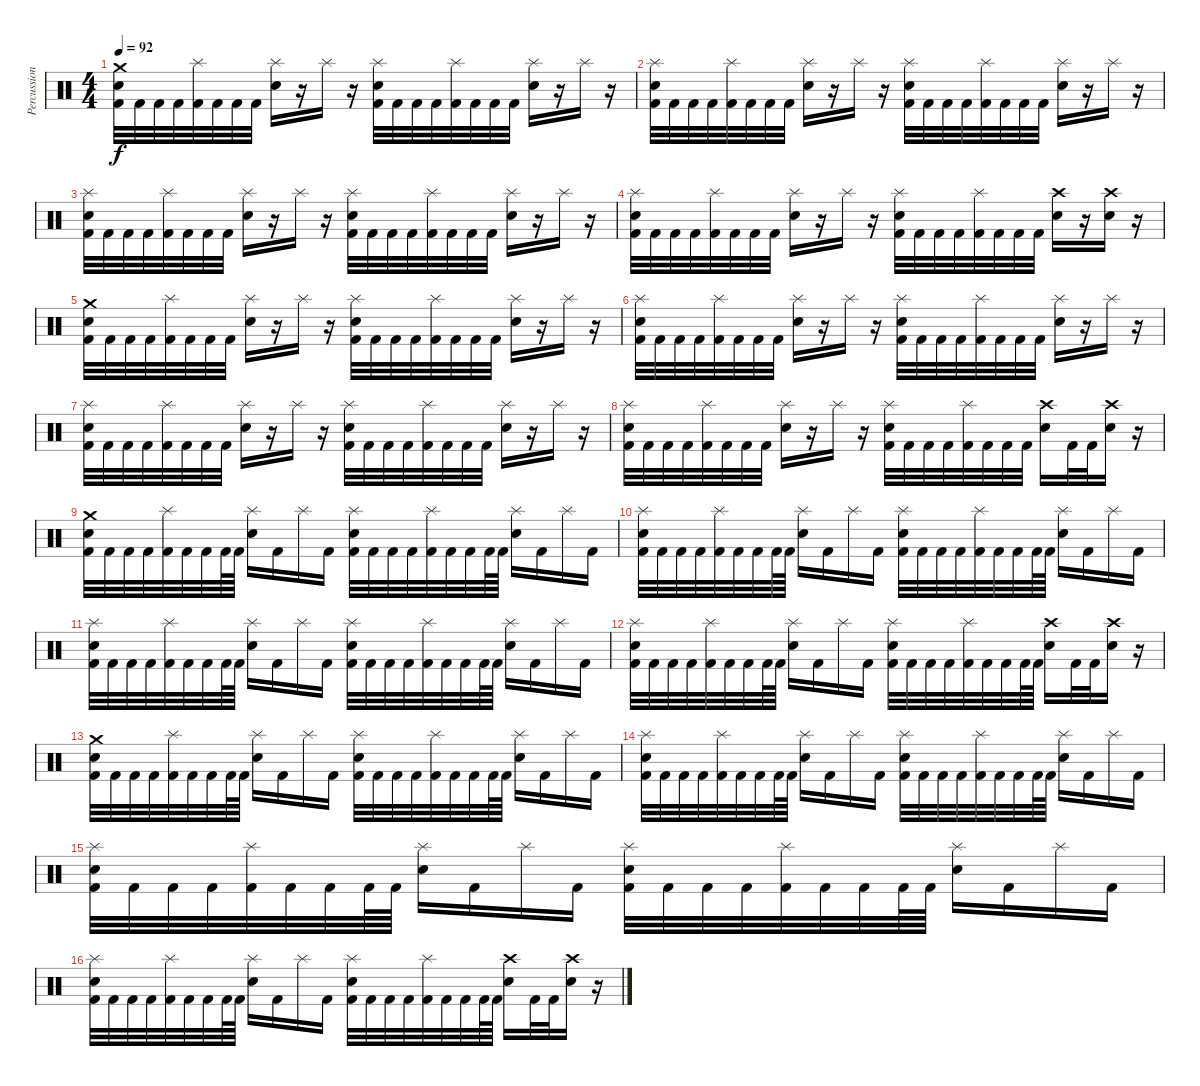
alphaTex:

\track ("Percussion" "Percussion") {instrument percussion}
\staff {score}
\articulation defaults
\ts (4 4)
\tempo 92
\clef neutral
\ks c
("Crash medium (hit)" "Electric Snare (hit)" "Kick (hit) 2").32{dy f} "Kick (hit) 2".32 "Kick (hit) 2".32 "Kick (hit) 2".32 ("Splash (hit)" "Kick (hit) 2").32 "Kick (hit) 2".32 "Kick (hit) 2".32 "Kick (hit) 2".32 ("Splash (hit)" "Electric Snare (hit)").16 r.16 "Splash (hit)".16 r.16 ("Splash (hit)" "Electric Snare (hit)" "Kick (hit) 2").32 "Kick (hit) 2".32 "Kick (hit) 2".32 "Kick (hit) 2".32 ("Splash (hit)" "Kick (hit) 2").32 "Kick (hit) 2".32 "Kick (hit) 2".32 "Kick (hit) 2".32 ("Splash (hit)" "Electric Snare (hit)").16 r.16 "Splash (hit)".16 r.16 |
("Splash (hit)" "Electric Snare (hit)" "Kick (hit) 2").32 "Kick (hit) 2".32 "Kick (hit) 2".32 "Kick (hit) 2".32 ("Splash (hit)" "Kick (hit) 2").32 "Kick (hit) 2".32 "Kick (hit) 2".32 "Kick (hit) 2".32 ("Splash (hit)" "Electric Snare (hit)").16 r.16 "Splash (hit)".16 r.16 ("Splash (hit)" "Electric Snare (hit)" "Kick (hit) 2").32 "Kick (hit) 2".32 "Kick (hit) 2".32 "Kick (hit) 2".32 ("Splash (hit)" "Kick (hit) 2").32 "Kick (hit) 2".32 "Kick (hit) 2".32 "Kick (hit) 2".32 ("Splash (hit)" "Electric Snare (hit)").16 r.16 "Splash (hit)".16 r.16 |
("Splash (hit)" "Electric Snare (hit)" "Kick (hit) 2").32 "Kick (hit) 2".32 "Kick (hit) 2".32 "Kick (hit) 2".32 ("Splash (hit)" "Kick (hit) 2").32 "Kick (hit) 2".32 "Kick (hit) 2".32 "Kick (hit) 2".32 ("Splash (hit)" "Electric Snare (hit)").16 r.16 "Splash (hit)".16 r.16 ("Splash (hit)" "Electric Snare (hit)" "Kick (hit) 2").32 "Kick (hit) 2".32 "Kick (hit) 2".32 "Kick (hit) 2".32 ("Splash (hit)" "Kick (hit) 2").32 "Kick (hit) 2".32 "Kick (hit) 2".32 "Kick (hit) 2".32 ("Splash (hit)" "Electric Snare (hit)").16 r.16 "Splash (hit)".16 r.16 |
("Splash (hit)" "Electric Snare (hit)" "Kick (hit) 2").32 "Kick (hit) 2".32 "Kick (hit) 2".32 "Kick (hit) 2".32 ("Splash (hit)" "Kick (hit) 2").32 "Kick (hit) 2".32 "Kick (hit) 2".32 "Kick (hit) 2".32 ("Splash (hit)" "Electric Snare (hit)").16 r.16 "Splash (hit)".16 r.16 ("Splash (hit)" "Electric Snare (hit)" "Kick (hit) 2").32 "Kick (hit) 2".32 "Kick (hit) 2".32 "Kick (hit) 2".32 ("Splash (hit)" "Kick (hit) 2").32 "Kick (hit) 2".32 "Kick (hit) 2".32 "Kick (hit) 2".32 ("Crash high (hit)" "Electric Snare (hit)").16 r.16 ("Crash high (hit)" "Electric Snare (hit)").16 r.16 |
("Crash medium (hit)" "Electric Snare (hit)" "Kick (hit) 2").32 "Kick (hit) 2".32 "Kick (hit) 2".32 "Kick (hit) 2".32 ("Splash (hit)" "Kick (hit) 2").32 "Kick (hit) 2".32 "Kick (hit) 2".32 "Kick (hit) 2".32 ("Splash (hit)" "Electric Snare (hit)").16 r.16 "Splash (hit)".16 r.16 ("Splash (hit)" "Electric Snare (hit)" "Kick (hit) 2").32 "Kick (hit) 2".32 "Kick (hit) 2".32 "Kick (hit) 2".32 ("Splash (hit)" "Kick (hit) 2").32 "Kick (hit) 2".32 "Kick (hit) 2".32 "Kick (hit) 2".32 ("Splash (hit)" "Electric Snare (hit)").16 r.16 "Splash (hit)".16 r.16 |
("Splash (hit)" "Electric Snare (hit)" "Kick (hit) 2").32 "Kick (hit) 2".32 "Kick (hit) 2".32 "Kick (hit) 2".32 ("Splash (hit)" "Kick (hit) 2").32 "Kick (hit) 2".32 "Kick (hit) 2".32 "Kick (hit) 2".32 ("Splash (hit)" "Electric Snare (hit)").16 r.16 "Splash (hit)".16 r.16 ("Splash (hit)" "Electric Snare (hit)" "Kick (hit) 2").32 "Kick (hit) 2".32 "Kick (hit) 2".32 "Kick (hit) 2".32 ("Splash (hit)" "Kick (hit) 2").32 "Kick (hit) 2".32 "Kick (hit) 2".32 "Kick (hit) 2".32 ("Splash (hit)" "Electric Snare (hit)").16 r.16 "Splash (hit)".16 r.16 |
("Splash (hit)" "Electric Snare (hit)" "Kick (hit) 2").32 "Kick (hit) 2".32 "Kick (hit) 2".32 "Kick (hit) 2".32 ("Splash (hit)" "Kick (hit) 2").32 "Kick (hit) 2".32 "Kick (hit) 2".32 "Kick (hit) 2".32 ("Splash (hit)" "Electric Snare (hit)").16 r.16 "Splash (hit)".16 r.16 ("Splash (hit)" "Electric Snare (hit)" "Kick (hit) 2").32 "Kick (hit) 2".32 "Kick (hit) 2".32 "Kick (hit) 2".32 ("Splash (hit)" "Kick (hit) 2").32 "Kick (hit) 2".32 "Kick (hit) 2".32 "Kick (hit) 2".32 ("Splash (hit)" "Electric Snare (hit)").16 r.16 "Splash (hit)".16 r.16 |
("Splash (hit)" "Electric Snare (hit)" "Kick (hit) 2").32 "Kick (hit) 2".32 "Kick (hit) 2".32 "Kick (hit) 2".32 ("Splash (hit)" "Kick (hit) 2").32 "Kick (hit) 2".32 "Kick (hit) 2".32 "Kick (hit) 2".32 ("Splash (hit)" "Electric Snare (hit)").16 r.16 "Splash (hit)".16 r.16 ("Splash (hit)" "Electric Snare (hit)" "Kick (hit) 2").32 "Kick (hit) 2".32 "Kick (hit) 2".32 "Kick (hit) 2".32 ("Splash (hit)" "Kick (hit) 2").32 "Kick (hit) 2".32 "Kick (hit) 2".32 "Kick (hit) 2".32 ("Crash high (hit)" "Electric Snare (hit)").16 "Kick (hit) 2".32 "Kick (hit) 2".32 ("Crash high (hit)" "Electric Snare (hit)").16 r.16 |
("Crash medium (hit)" "Electric Snare (hit)" "Kick (hit) 2").32 "Kick (hit) 2".32 "Kick (hit) 2".32 "Kick (hit) 2".32 ("Splash (hit)" "Kick (hit) 2").32 "Kick (hit) 2".32 "Kick (hit) 2".32 "Kick (hit) 2".64 "Kick (hit) 2".64 ("Splash (hit)" "Electric Snare (hit)").16 "Kick (hit) 2".16 "Splash (hit)".16 "Kick (hit) 2".16 ("Splash (hit)" "Electric Snare (hit)" "Kick (hit) 2").32 "Kick (hit) 2".32 "Kick (hit) 2".32 "Kick (hit) 2".32 ("Splash (hit)" "Kick (hit) 2").32 "Kick (hit) 2".32 "Kick (hit) 2".32 "Kick (hit) 2".64 "Kick (hit) 2".64 ("Splash (hit)" "Electric Snare (hit)").16 "Kick (hit) 2".16 "Splash (hit)".16 "Kick (hit) 2".16 |
("Splash (hit)" "Electric Snare (hit)" "Kick (hit) 2").32 "Kick (hit) 2".32 "Kick (hit) 2".32 "Kick (hit) 2".32 ("Splash (hit)" "Kick (hit) 2").32 "Kick (hit) 2".32 "Kick (hit) 2".32 "Kick (hit) 2".64 "Kick (hit) 2".64 ("Splash (hit)" "Electric Snare (hit)").16 "Kick (hit) 2".16 "Splash (hit)".16 "Kick (hit) 2".16 ("Splash (hit)" "Electric Snare (hit)" "Kick (hit) 2").32 "Kick (hit) 2".32 "Kick (hit) 2".32 "Kick (hit) 2".32 ("Splash (hit)" "Kick (hit) 2").32 "Kick (hit) 2".32 "Kick (hit) 2".32 "Kick (hit) 2".64 "Kick (hit) 2".64 ("Splash (hit)" "Electric Snare (hit)").16 "Kick (hit) 2".16 "Splash (hit)".16 "Kick (hit) 2".16 |
("Splash (hit)" "Electric Snare (hit)" "Kick (hit) 2").32 "Kick (hit) 2".32 "Kick (hit) 2".32 "Kick (hit) 2".32 ("Splash (hit)" "Kick (hit) 2").32 "Kick (hit) 2".32 "Kick (hit) 2".32 "Kick (hit) 2".64 "Kick (hit) 2".64 ("Splash (hit)" "Electric Snare (hit)").16 "Kick (hit) 2".16 "Splash (hit)".16 "Kick (hit) 2".16 ("Splash (hit)" "Electric Snare (hit)" "Kick (hit) 2").32 "Kick (hit) 2".32 "Kick (hit) 2".32 "Kick (hit) 2".32 ("Splash (hit)" "Kick (hit) 2").32 "Kick (hit) 2".32 "Kick (hit) 2".32 "Kick (hit) 2".64 "Kick (hit) 2".64 ("Splash (hit)" "Electric Snare (hit)").16 "Kick (hit) 2".16 "Splash (hit)".16 "Kick (hit) 2".16 |
("Splash (hit)" "Electric Snare (hit)" "Kick (hit) 2").32 "Kick (hit) 2".32 "Kick (hit) 2".32 "Kick (hit) 2".32 ("Splash (hit)" "Kick (hit) 2").32 "Kick (hit) 2".32 "Kick (hit) 2".32 "Kick (hit) 2".64 "Kick (hit) 2".64 ("Splash (hit)" "Electric Snare (hit)").16 "Kick (hit) 2".16 "Splash (hit)".16 "Kick (hit) 2".16 ("Splash (hit)" "Electric Snare (hit)" "Kick (hit) 2").32 "Kick (hit) 2".32 "Kick (hit) 2".32 "Kick (hit) 2".32 ("Splash (hit)" "Kick (hit) 2").32 "Kick (hit) 2".32 "Kick (hit) 2".32 "Kick (hit) 2".64 "Kick (hit) 2".64 ("Crash high (hit)" "Electric Snare (hit)").16 "Kick (hit) 2".32 "Kick (hit) 2".32 ("Crash high (hit)" "Electric Snare (hit)").16 r.16 |
("Crash medium (hit)" "Electric Snare (hit)" "Kick (hit) 2").32 "Kick (hit) 2".32 "Kick (hit) 2".32 "Kick (hit) 2".32 ("Splash (hit)" "Kick (hit) 2").32 "Kick (hit) 2".32 "Kick (hit) 2".32 "Kick (hit) 2".64 "Kick (hit) 2".64 ("Splash (hit)" "Electric Snare (hit)").16 "Kick (hit) 2".16 "Splash (hit)".16 "Kick (hit) 2".16 ("Splash (hit)" "Electric Snare (hit)" "Kick (hit) 2").32 "Kick (hit) 2".32 "Kick (hit) 2".32 "Kick (hit) 2".32 ("Splash (hit)" "Kick (hit) 2").32 "Kick (hit) 2".32 "Kick (hit) 2".32 "Kick (hit) 2".64 "Kick (hit) 2".64 ("Splash (hit)" "Electric Snare (hit)").16 "Kick (hit) 2".16 "Splash (hit)".16 "Kick (hit) 2".16 |
("Splash (hit)" "Electric Snare (hit)" "Kick (hit) 2").32 "Kick (hit) 2".32 "Kick (hit) 2".32 "Kick (hit) 2".32 ("Splash (hit)" "Kick (hit) 2").32 "Kick (hit) 2".32 "Kick (hit) 2".32 "Kick (hit) 2".64 "Kick (hit) 2".64 ("Splash (hit)" "Electric Snare (hit)").16 "Kick (hit) 2".16 "Splash (hit)".16 "Kick (hit) 2".16 ("Splash (hit)" "Electric Snare (hit)" "Kick (hit) 2").32 "Kick (hit) 2".32 "Kick (hit) 2".32 "Kick (hit) 2".32 ("Splash (hit)" "Kick (hit) 2").32 "Kick (hit) 2".32 "Kick (hit) 2".32 "Kick (hit) 2".64 "Kick (hit) 2".64 ("Splash (hit)" "Electric Snare (hit)").16 "Kick (hit) 2".16 "Splash (hit)".16 "Kick (hit) 2".16 |
("Splash (hit)" "Electric Snare (hit)" "Kick (hit) 2").32 "Kick (hit) 2".32 "Kick (hit) 2".32 "Kick (hit) 2".32 ("Splash (hit)" "Kick (hit) 2").32 "Kick (hit) 2".32 "Kick (hit) 2".32 "Kick (hit) 2".64 "Kick (hit) 2".64 ("Splash (hit)" "Electric Snare (hit)").16 "Kick (hit) 2".16 "Splash (hit)".16 "Kick (hit) 2".16 ("Splash (hit)" "Electric Snare (hit)" "Kick (hit) 2").32 "Kick (hit) 2".32 "Kick (hit) 2".32 "Kick (hit) 2".32 ("Splash (hit)" "Kick (hit) 2").32 "Kick (hit) 2".32 "Kick (hit) 2".32 "Kick (hit) 2".64 "Kick (hit) 2".64 ("Splash (hit)" "Electric Snare (hit)").16 "Kick (hit) 2".16 "Splash (hit)".16 "Kick (hit) 2".16 |
("Splash (hit)" "Electric Snare (hit)" "Kick (hit) 2").32 "Kick (hit) 2".32 "Kick (hit) 2".32 "Kick (hit) 2".32 ("Splash (hit)" "Kick (hit) 2").32 "Kick (hit) 2".32 "Kick (hit) 2".32 "Kick (hit) 2".64 "Kick (hit) 2".64 ("Splash (hit)" "Electric Snare (hit)").16 "Kick (hit) 2".16 "Splash (hit)".16 "Kick (hit) 2".16 ("Splash (hit)" "Electric Snare (hit)" "Kick (hit) 2").32 "Kick (hit) 2".32 "Kick (hit) 2".32 "Kick (hit) 2".32 ("Splash (hit)" "Kick (hit) 2").32 "Kick (hit) 2".32 "Kick (hit) 2".32 "Kick (hit) 2".64 "Kick (hit) 2".64 ("Crash high (hit)" "Electric Snare (hit)").16 "Kick (hit) 2".32 "Kick (hit) 2".32 ("Crash high (hit)" "Electric Snare (hit)").16 r.16
